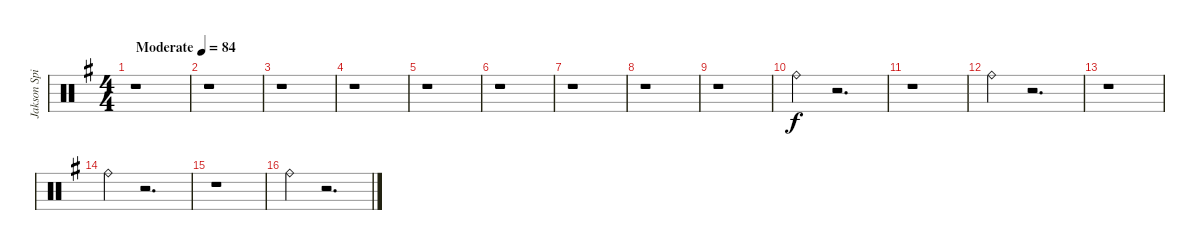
\track ("Jakson Spires Drums" "Jakson Spi") {instrument percussion}
\staff {score}
\articulation defaults
\ts (4 4)
\tempo (84 "Moderate")
\clef neutral
\ks g
r.1{dy f} |
r.1 |
r.1 |
r.1 |
r.1 |
r.1 |
r.1 |
r.1 |
r.1 |
"Ride (bell)".4 r.2{d} |
r.1 |
"Ride (bell)".4 r.2{d} |
r.1 |
"Ride (bell)".4 r.2{d} |
r.1 |
"Ride (bell)".4 r.2{d}
